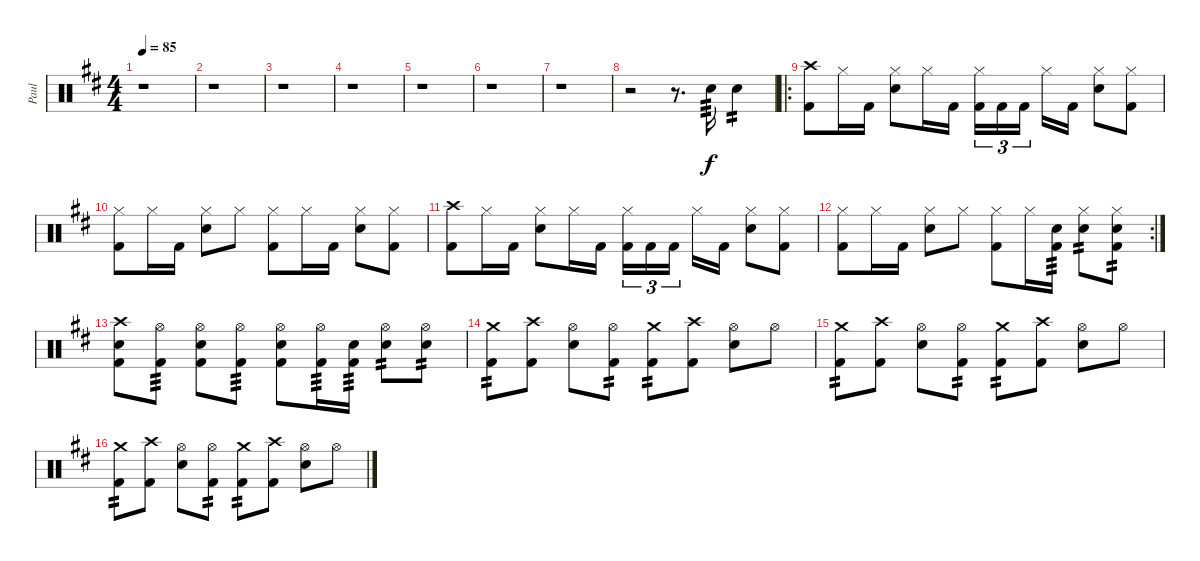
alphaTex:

\track ("Paul" "Paul") {instrument percussion}
\staff {score}
\articulation defaults
\ts (4 4)
\tempo 85
\clef neutral
\ks bminor
r.1{dy f} |
r.1 |
r.1 |
r.1 |
r.1 |
r.1 |
r.1 |
r.2 r.8{d} "Snare (hit) 2".16{tp 3} "Snare (hit) 2".4{tp 2} |
\ro
("Crash high (hit)" "Kick (hit) 2").8 "Hi-Hat (closed)".16 "Kick (hit) 2".16 ("Hi-Hat (closed)" "Snare (hit) 2").8 "Hi-Hat (closed)".16 "Kick (hit) 2".16 ("Hi-Hat (closed)" "Kick (hit) 2").16{tu (3 2)} "Kick (hit) 2".16{tu (3 2)} "Kick (hit) 2".16{tu (3 2)} "Hi-Hat (closed)".16 "Kick (hit) 2".16 ("Hi-Hat (closed)" "Snare (hit) 2").8 ("Hi-Hat (closed)" "Kick (hit) 2").8 |
("Hi-Hat (closed)" "Kick (hit) 2").8 "Hi-Hat (closed)".16 "Kick (hit) 2".16 ("Hi-Hat (closed)" "Snare (hit) 2").8 "Hi-Hat (closed)".8 ("Hi-Hat (closed)" "Kick (hit) 2").8 "Hi-Hat (closed)".16 "Kick (hit) 2".16 ("Hi-Hat (closed)" "Snare (hit) 2").8 ("Hi-Hat (closed)" "Kick (hit) 2").8 |
("Crash high (hit)" "Kick (hit) 2").8 "Hi-Hat (closed)".16 "Kick (hit) 2".16 ("Hi-Hat (closed)" "Snare (hit) 2").8 "Hi-Hat (closed)".16 "Kick (hit) 2".16 ("Hi-Hat (closed)" "Kick (hit) 2").16{tu (3 2)} "Kick (hit) 2".16{tu (3 2)} "Kick (hit) 2".16{tu (3 2)} "Hi-Hat (closed)".16 "Kick (hit) 2".16 ("Hi-Hat (closed)" "Snare (hit) 2").8 ("Hi-Hat (closed)" "Kick (hit) 2").8 |
\rc 2
("Hi-Hat (closed)" "Kick (hit) 2").8 "Hi-Hat (closed)".16 "Kick (hit) 2".16 ("Hi-Hat (closed)" "Snare (hit) 2").8 "Hi-Hat (closed)".8 ("Hi-Hat (closed)" "Kick (hit) 2").8 "Hi-Hat (closed)".16 ("Snare (hit) 2" "Kick (hit) 2").16{tp 3} ("Hi-Hat (closed)" "Snare (hit) 2").8{tp 2} ("Hi-Hat (closed)" "Snare (hit) 2" "Kick (hit) 2").8{tp 2} |
("Crash high (hit)" "Snare (hit) 2" "Kick (hit) 2").8 ("Hi-Hat (open)" "Kick (hit) 2").8{tp 3} ("Hi-Hat (open)" "Snare (hit) 2" "Kick (hit) 2").8 ("Hi-Hat (open)" "Kick (hit) 2").8{tp 3} ("Hi-Hat (open)" "Snare (hit) 2" "Kick (hit) 2").8 ("Hi-Hat (open)" "Kick (hit) 2").16{tp 3} ("Snare (hit) 2" "Kick (hit) 2").16{tp 3} ("Hi-Hat (open)" "Snare (hit) 2").8{tp 2} ("Hi-Hat (open)" "Snare (hit) 2").8{tp 2} |
("Crash medium (hit)" "Kick (hit) 2").8{tp 2} ("Crash high (hit)" "Kick (hit) 2").8 ("Hi-Hat (open)" "Snare (hit) 2").8 ("Hi-Hat (open)" "Kick (hit) 2").8{tp 2} ("Crash medium (hit)" "Kick (hit) 2").8{tp 2} ("Crash high (hit)" "Kick (hit) 2").8 ("Hi-Hat (open)" "Snare (hit) 2").8 "Hi-Hat (open)".8 |
("Crash medium (hit)" "Kick (hit) 2").8{tp 2} ("Crash high (hit)" "Kick (hit) 2").8 ("Hi-Hat (open)" "Snare (hit) 2").8 ("Hi-Hat (open)" "Kick (hit) 2").8{tp 2} ("Crash medium (hit)" "Kick (hit) 2").8{tp 2} ("Crash high (hit)" "Kick (hit) 2").8 ("Hi-Hat (open)" "Snare (hit) 2").8 "Hi-Hat (open)".8 |
("Crash medium (hit)" "Kick (hit) 2").8{tp 2} ("Crash high (hit)" "Kick (hit) 2").8 ("Hi-Hat (open)" "Snare (hit) 2").8 ("Hi-Hat (open)" "Kick (hit) 2").8{tp 2} ("Crash medium (hit)" "Kick (hit) 2").8{tp 2} ("Crash high (hit)" "Kick (hit) 2").8 ("Hi-Hat (open)" "Snare (hit) 2").8 "Hi-Hat (open)".8
